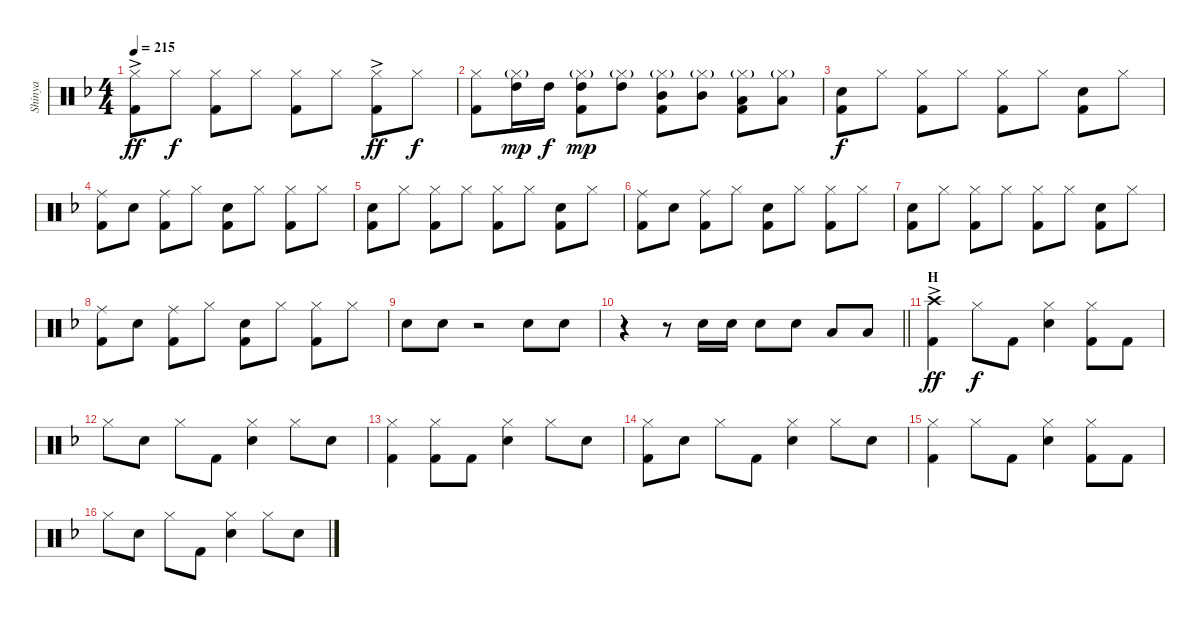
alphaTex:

\track ("Shinya" "Shinya") {instrument percussion}
\staff {score}
\articulation defaults
\ts (4 4)
\tempo 215
\clef neutral
\ks f
("Hi-Hat (closed)"{ac} "Kick (hit) 2").8{dy ff} "Hi-Hat (closed)".8{dy f} ("Hi-Hat (closed)" "Kick (hit) 2").8 "Hi-Hat (closed)".8 ("Hi-Hat (closed)" "Kick (hit) 2").8 "Hi-Hat (closed)".8 ("Hi-Hat (closed)"{ac} "Kick (hit) 2").8{dy ff} "Hi-Hat (closed)".8{dy f} |
("Hi-Hat (closed)" "Kick (hit) 2").8 ("Hi-Hat (closed)"{g} "High Tom (hit)").16{dy mp} "High Tom (hit)".16{dy f} ("Hi-Hat (closed)"{g} "High Tom (hit)" "Kick (hit) 2").8{dy mp} ("Hi-Hat (closed)"{g} "High Tom (hit)").8 ("Hi-Hat (closed)"{g} "Mid Tom (hit)" "Kick (hit) 2").8 ("Hi-Hat (closed)"{g} "Mid Tom (hit)").8 ("Hi-Hat (closed)"{g} "Low Tom (hit)" "Kick (hit) 2").8 ("Hi-Hat (closed)"{g} "Low Tom (hit)").8 |
("Snare (hit) 2" "Kick (hit) 2").8{dy f} "Hi-Hat (closed)".8 ("Hi-Hat (closed)" "Kick (hit) 2").8 "Hi-Hat (closed)".8 ("Hi-Hat (closed)" "Kick (hit) 2").8 "Hi-Hat (closed)".8 ("Snare (hit) 2" "Kick (hit) 2").8 "Hi-Hat (closed)".8 |
("Ride (middle)" "Kick (hit) 2").8 "Snare (hit) 2".8 ("Ride (middle)" "Kick (hit) 2").8 "Hi-Hat (closed)".8 ("Snare (hit) 2" "Kick (hit) 2").8 "Hi-Hat (closed)".8 ("Hi-Hat (closed)" "Kick (hit) 2").8 "Hi-Hat (closed)".8 |
("Snare (hit) 2" "Kick (hit) 2").8 "Hi-Hat (closed)".8 ("Hi-Hat (closed)" "Kick (hit) 2").8 "Hi-Hat (closed)".8 ("Hi-Hat (closed)" "Kick (hit) 2").8 "Hi-Hat (closed)".8 ("Snare (hit) 2" "Kick (hit) 2").8 "Hi-Hat (closed)".8 |
("Ride (middle)" "Kick (hit) 2").8 "Snare (hit) 2".8 ("Ride (middle)" "Kick (hit) 2").8 "Hi-Hat (closed)".8 ("Snare (hit) 2" "Kick (hit) 2").8 "Hi-Hat (closed)".8 ("Hi-Hat (closed)" "Kick (hit) 2").8 "Hi-Hat (closed)".8 |
("Snare (hit) 2" "Kick (hit) 2").8 "Hi-Hat (closed)".8 ("Hi-Hat (closed)" "Kick (hit) 2").8 "Hi-Hat (closed)".8 ("Hi-Hat (closed)" "Kick (hit) 2").8 "Hi-Hat (closed)".8 ("Snare (hit) 2" "Kick (hit) 2").8 "Hi-Hat (closed)".8 |
("Ride (middle)" "Kick (hit) 2").8 "Snare (hit) 2".8 ("Ride (middle)" "Kick (hit) 2").8 "Hi-Hat (closed)".8 ("Snare (hit) 2" "Kick (hit) 2").8 "Hi-Hat (closed)".8 ("Hi-Hat (closed)" "Kick (hit) 2").8 "Hi-Hat (closed)".8 |
"Snare (hit) 2".8 "Snare (hit) 2".8 r.2 "Snare (hit) 2".8 "Snare (hit) 2".8 |
\barLineRight lightlight
r.4 r.8 "Snare (hit) 2".16 "Snare (hit) 2".16 "Snare (hit) 2".8 "Snare (hit) 2".8 "Low Tom (hit)".8 "Low Tom (hit)".8 |
\section ("" "H")
("Crash high (hit)"{ac} "Kick (hit) 2").4{dy ff} "Hi-Hat (closed)".8{dy f} "Kick (hit) 2".8 ("Hi-Hat (closed)" "Snare (hit) 2").4 ("Hi-Hat (closed)" "Kick (hit) 2").8 "Kick (hit) 2".8 |
"Hi-Hat (closed)".8 "Snare (hit) 2".8 "Hi-Hat (closed)".8 "Kick (hit) 2".8 ("Hi-Hat (closed)" "Snare (hit) 2").4 "Hi-Hat (closed)".8 "Snare (hit) 2".8 |
("Hi-Hat (closed)" "Kick (hit) 2").4 ("Hi-Hat (closed)" "Kick (hit) 2").8 "Kick (hit) 2".8 ("Hi-Hat (closed)" "Snare (hit) 2").4 "Hi-Hat (closed)".8 "Snare (hit) 2".8 |
("Hi-Hat (closed)" "Kick (hit) 2").8 "Snare (hit) 2".8 "Hi-Hat (closed)".8 "Kick (hit) 2".8 ("Hi-Hat (closed)" "Snare (hit) 2").4 "Hi-Hat (closed)".8 "Snare (hit) 2".8 |
("Hi-Hat (closed)" "Kick (hit) 2").4 "Hi-Hat (closed)".8 "Kick (hit) 2".8 ("Hi-Hat (closed)" "Snare (hit) 2").4 ("Hi-Hat (closed)" "Kick (hit) 2").8 "Kick (hit) 2".8 |
"Hi-Hat (closed)".8 "Snare (hit) 2".8 "Hi-Hat (closed)".8 "Kick (hit) 2".8 ("Hi-Hat (closed)" "Snare (hit) 2").4 "Hi-Hat (closed)".8 "Snare (hit) 2".8
